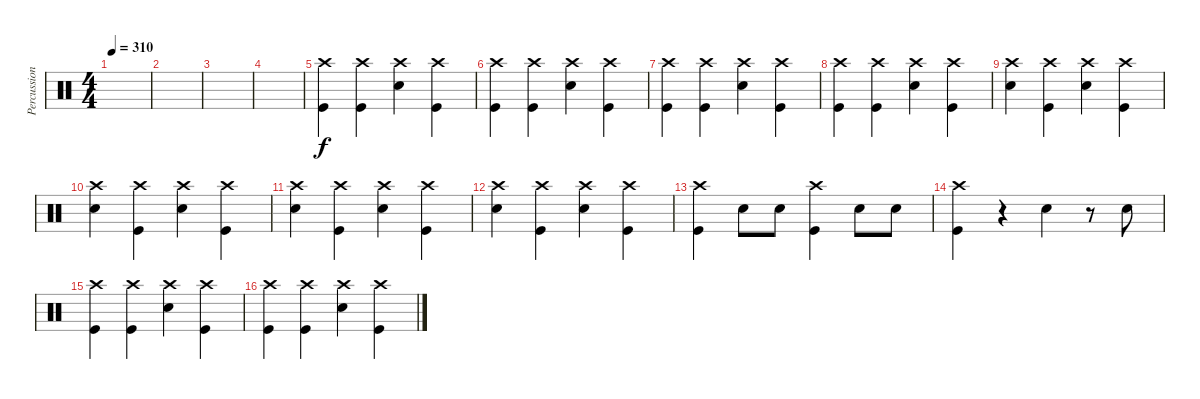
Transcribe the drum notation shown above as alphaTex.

\track ("Percussion" "Percussion") {instrument percussion}
\staff {score}
\articulation defaults
\ts (4 4)
\tempo 310
\clef neutral
\ks c
|
|
|
|
("Crash high (hit)" "Kick (hit)").4 ("Crash high (hit)" "Kick (hit)").4 ("Crash high (hit)" "Electric Snare (hit)").4 ("Crash high (hit)" "Kick (hit)").4 |
("Crash high (hit)" "Kick (hit)").4 ("Crash high (hit)" "Kick (hit)").4 ("Crash high (hit)" "Electric Snare (hit)").4 ("Crash high (hit)" "Kick (hit)").4 |
("Crash high (hit)" "Kick (hit)").4 ("Crash high (hit)" "Kick (hit)").4 ("Crash high (hit)" "Electric Snare (hit)").4 ("Crash high (hit)" "Kick (hit)").4 |
("Crash high (hit)" "Kick (hit)").4 ("Crash high (hit)" "Kick (hit)").4 ("Crash high (hit)" "Electric Snare (hit)").4 ("Crash high (hit)" "Kick (hit)").4 |
("Crash high (hit)" "Electric Snare (hit)").4 ("Crash high (hit)" "Kick (hit)").4 ("Crash high (hit)" "Electric Snare (hit)").4 ("Crash high (hit)" "Kick (hit)").4 |
("Crash high (hit)" "Electric Snare (hit)").4 ("Crash high (hit)" "Kick (hit)").4 ("Crash high (hit)" "Electric Snare (hit)").4 ("Crash high (hit)" "Kick (hit)").4 |
("Crash high (hit)" "Electric Snare (hit)").4 ("Crash high (hit)" "Kick (hit)").4 ("Crash high (hit)" "Electric Snare (hit)").4 ("Crash high (hit)" "Kick (hit)").4 |
("Crash high (hit)" "Electric Snare (hit)").4 ("Crash high (hit)" "Kick (hit)").4 ("Crash high (hit)" "Electric Snare (hit)").4 ("Crash high (hit)" "Kick (hit)").4 |
("Crash high (hit)" "Kick (hit)").4 "Electric Snare (hit)".8 "Electric Snare (hit)".8 ("Crash high (hit)" "Kick (hit)").4 "Electric Snare (hit)".8 "Electric Snare (hit)".8 |
("Crash high (hit)" "Kick (hit)").4 r.4 "Electric Snare (hit)".4 r.8 "Electric Snare (hit)".8 |
("Crash high (hit)" "Kick (hit)").4 ("Crash high (hit)" "Kick (hit)").4 ("Crash high (hit)" "Electric Snare (hit)").4 ("Crash high (hit)" "Kick (hit)").4 |
("Crash high (hit)" "Kick (hit)").4 ("Crash high (hit)" "Kick (hit)").4 ("Crash high (hit)" "Electric Snare (hit)").4 ("Crash high (hit)" "Kick (hit)").4
